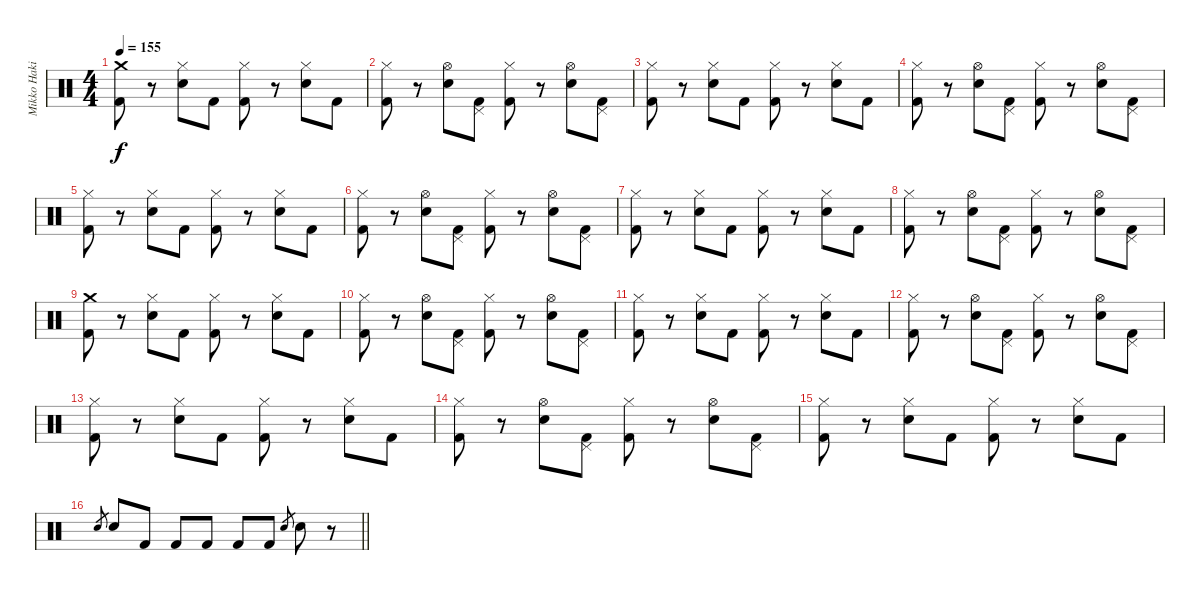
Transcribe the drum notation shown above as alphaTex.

\track ("Mikko Hakila - Drums" "Mikko Haki") {instrument percussion}
\staff {score}
\articulation defaults
\ts (4 4)
\tempo 155
\clef neutral
\ks c
("Crash medium (hit)" "Kick (hit) 2").8{dy f} r.8 ("Hi-Hat (closed)" "Electric Snare (hit)").8 "Kick (hit) 2".8 ("Hi-Hat (closed)" "Kick (hit) 2").8 r.8 ("Hi-Hat (closed)" "Electric Snare (hit)").8 "Kick (hit) 2".8 |
("Hi-Hat (closed)" "Kick (hit) 2").8 r.8 ("Hi-Hat (open)" "Electric Snare (hit)").8 ("Pedal Hi-Hat (hit)" "Kick (hit) 2").8 ("Hi-Hat (closed)" "Kick (hit) 2").8 r.8 ("Hi-Hat (open)" "Electric Snare (hit)").8 ("Pedal Hi-Hat (hit)" "Kick (hit) 2").8 |
("Hi-Hat (closed)" "Kick (hit) 2").8 r.8 ("Hi-Hat (closed)" "Electric Snare (hit)").8 "Kick (hit) 2".8 ("Hi-Hat (closed)" "Kick (hit) 2").8 r.8 ("Hi-Hat (closed)" "Electric Snare (hit)").8 "Kick (hit) 2".8 |
("Hi-Hat (closed)" "Kick (hit) 2").8 r.8 ("Hi-Hat (open)" "Electric Snare (hit)").8 ("Pedal Hi-Hat (hit)" "Kick (hit) 2").8 ("Hi-Hat (closed)" "Kick (hit) 2").8 r.8 ("Hi-Hat (open)" "Electric Snare (hit)").8 ("Pedal Hi-Hat (hit)" "Kick (hit) 2").8 |
("Hi-Hat (closed)" "Kick (hit) 2").8 r.8 ("Hi-Hat (closed)" "Electric Snare (hit)").8 "Kick (hit) 2".8 ("Hi-Hat (closed)" "Kick (hit) 2").8 r.8 ("Hi-Hat (closed)" "Electric Snare (hit)").8 "Kick (hit) 2".8 |
("Hi-Hat (closed)" "Kick (hit) 2").8 r.8 ("Hi-Hat (open)" "Electric Snare (hit)").8 ("Pedal Hi-Hat (hit)" "Kick (hit) 2").8 ("Hi-Hat (closed)" "Kick (hit) 2").8 r.8 ("Hi-Hat (open)" "Electric Snare (hit)").8 ("Pedal Hi-Hat (hit)" "Kick (hit) 2").8 |
("Hi-Hat (closed)" "Kick (hit) 2").8 r.8 ("Hi-Hat (closed)" "Electric Snare (hit)").8 "Kick (hit) 2".8 ("Hi-Hat (closed)" "Kick (hit) 2").8 r.8 ("Hi-Hat (closed)" "Electric Snare (hit)").8 "Kick (hit) 2".8 |
("Hi-Hat (closed)" "Kick (hit) 2").8 r.8 ("Hi-Hat (open)" "Electric Snare (hit)").8 ("Pedal Hi-Hat (hit)" "Kick (hit) 2").8 ("Hi-Hat (closed)" "Kick (hit) 2").8 r.8 ("Hi-Hat (open)" "Electric Snare (hit)").8 ("Pedal Hi-Hat (hit)" "Kick (hit) 2").8 |
("Crash medium (hit)" "Kick (hit) 2").8 r.8 ("Hi-Hat (closed)" "Electric Snare (hit)").8 "Kick (hit) 2".8 ("Hi-Hat (closed)" "Kick (hit) 2").8 r.8 ("Hi-Hat (closed)" "Electric Snare (hit)").8 "Kick (hit) 2".8 |
("Hi-Hat (closed)" "Kick (hit) 2").8 r.8 ("Hi-Hat (open)" "Electric Snare (hit)").8 ("Pedal Hi-Hat (hit)" "Kick (hit) 2").8 ("Hi-Hat (closed)" "Kick (hit) 2").8 r.8 ("Hi-Hat (open)" "Electric Snare (hit)").8 ("Pedal Hi-Hat (hit)" "Kick (hit) 2").8 |
("Hi-Hat (closed)" "Kick (hit) 2").8 r.8 ("Hi-Hat (closed)" "Electric Snare (hit)").8 "Kick (hit) 2".8 ("Hi-Hat (closed)" "Kick (hit) 2").8 r.8 ("Hi-Hat (closed)" "Electric Snare (hit)").8 "Kick (hit) 2".8 |
("Hi-Hat (closed)" "Kick (hit) 2").8 r.8 ("Hi-Hat (open)" "Electric Snare (hit)").8 ("Pedal Hi-Hat (hit)" "Kick (hit) 2").8 ("Hi-Hat (closed)" "Kick (hit) 2").8 r.8 ("Hi-Hat (open)" "Electric Snare (hit)").8 ("Pedal Hi-Hat (hit)" "Kick (hit) 2").8 |
("Hi-Hat (closed)" "Kick (hit) 2").8 r.8 ("Hi-Hat (closed)" "Electric Snare (hit)").8 "Kick (hit) 2".8 ("Hi-Hat (closed)" "Kick (hit) 2").8 r.8 ("Hi-Hat (closed)" "Electric Snare (hit)").8 "Kick (hit) 2".8 |
("Hi-Hat (closed)" "Kick (hit) 2").8 r.8 ("Hi-Hat (open)" "Electric Snare (hit)").8 ("Pedal Hi-Hat (hit)" "Kick (hit) 2").8 ("Hi-Hat (closed)" "Kick (hit) 2").8 r.8 ("Hi-Hat (open)" "Electric Snare (hit)").8 ("Pedal Hi-Hat (hit)" "Kick (hit) 2").8 |
("Hi-Hat (closed)" "Kick (hit) 2").8 r.8 ("Hi-Hat (closed)" "Electric Snare (hit)").8 "Kick (hit) 2".8 ("Hi-Hat (closed)" "Kick (hit) 2").8 r.8 ("Hi-Hat (closed)" "Electric Snare (hit)").8 "Kick (hit) 2".8 |
\barLineRight lightlight "Electric Snare (hit)".8{gr} "Electric Snare (hit)".8 "Kick (hit) 2".8 "Kick (hit) 2".8 "Kick (hit) 2".8 "Kick (hit) 2".8 "Kick (hit) 2".8 "Electric Snare (hit)".8{gr} "Electric Snare (hit)".8
r.8
